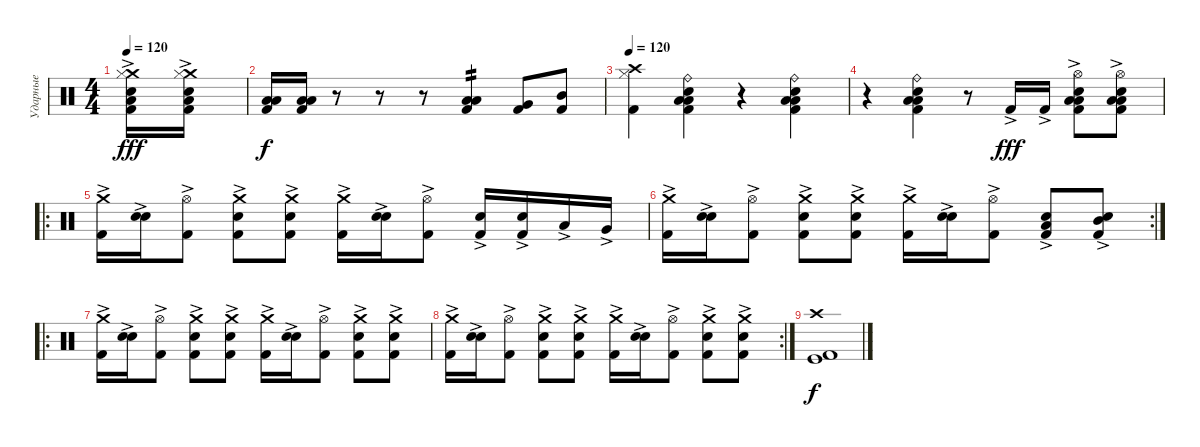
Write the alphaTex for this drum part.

\track ("Ударные" "Ударные") {instrument percussion}
\staff {score}
\articulation defaults
\ts (4 4)
\tempo 120
\clef neutral
\ks c
("Crash medium (hit)" "Low Tom (hit)" "Snare (hit) 2" "Hi-Hat (closed)" "Kick (hit) 2"{ac}).16{dy fff} ("Crash medium (hit)" "Low Tom (hit)" "Snare (hit) 2" "Hi-Hat (closed)" "Kick (hit) 2"{ac}).16 |
("Low Floor Tom (hit)" "Low Tom (hit)" "Kick (hit) 2").16{dy f} ("Low Floor Tom (hit)" "Low Tom (hit)" "Kick (hit) 2").16 r.8 r.8 r.8 ("Low Floor Tom (hit)" "Low Tom (hit)" "Kick (hit) 2").4{tp 2} ("Very Low Tom (hit)" "Kick (hit) 2").8 ("Mid Tom (hit)" "Kick (hit) 2").8 |
\tempo 120
("Crash high (hit)" "Hi-Hat (closed)" "Kick (hit) 2").4 ("Ride (bell)" "Low Floor Tom (hit)" "Low Tom (hit)" "Snare (hit) 2" "Kick (hit) 2").4 r.4 ("Ride (bell)" "Low Floor Tom (hit)" "Low Tom (hit)" "Snare (hit) 2" "Kick (hit) 2").4 |
r.4 ("Ride (bell)" "Low Floor Tom (hit)" "Low Tom (hit)" "Snare (hit) 2" "Kick (hit) 2").4 r.8 "Kick (hit) 2"{ac}.16{dy fff} "Kick (hit) 2"{ac}.16 ("Hi-Hat (open)" "Low Floor Tom (hit)" "Low Tom (hit)" "Snare (hit) 2" "Kick (hit) 2"{ac}).8 ("Hi-Hat (open)" "Low Floor Tom (hit)" "Low Tom (hit)" "Snare (hit) 2" "Kick (hit) 2"{ac}).8 |
\ro
("Crash medium (hit)"{ac} "Kick (hit) 2"{ac}).16 ("Snare (hit) 2" "Electric Snare (hit)"{ac}).16 ("Hi-Hat (open)" "Kick (hit) 2"{ac}).8 ("Crash medium (hit)"{ac} "Electric Snare (hit)"{ac} "Kick (hit) 2"{ac}).8 ("Crash medium (hit)"{ac} "Electric Snare (hit)"{ac} "Kick (hit) 2"{ac}).8 ("Crash medium (hit)"{ac} "Kick (hit) 2"{ac}).16 ("Snare (hit) 2" "Electric Snare (hit)"{ac}).16 ("Hi-Hat (open)" "Kick (hit) 2"{ac}).8 ("Electric Snare (hit)"{ac} "Kick (hit) 2"{ac}).16 ("Electric Snare (hit)"{ac} "Kick (hit) 2"{ac}).16 "Low Tom (hit)"{ac}.16 "Very Low Tom (hit)"{ac}.16 |
\rc 2
("Crash medium (hit)"{ac} "Kick (hit) 2"{ac}).16 ("Snare (hit) 2" "Electric Snare (hit)"{ac}).16 ("Hi-Hat (open)" "Kick (hit) 2"{ac}).8 ("Crash medium (hit)"{ac} "Electric Snare (hit)"{ac} "Kick (hit) 2"{ac}).8 ("Crash medium (hit)"{ac} "Electric Snare (hit)"{ac} "Kick (hit) 2"{ac}).8 ("Crash medium (hit)"{ac} "Kick (hit) 2"{ac}).16 ("Snare (hit) 2" "Electric Snare (hit)"{ac}).16 ("Hi-Hat (open)" "Kick (hit) 2"{ac}).8 ("Low Tom (hit)"{ac} "Electric Snare (hit)"{ac} "Kick (hit) 2"{ac}).8 ("Mid Tom (hit)"{ac} "Electric Snare (hit)"{ac} "Kick (hit) 2"{ac}).8 |
\ro
("Crash medium (hit)"{ac} "Kick (hit) 2"{ac}).16 ("Snare (hit) 2" "Electric Snare (hit)"{ac}).16 ("Hi-Hat (open)" "Kick (hit) 2"{ac}).8 ("Crash medium (hit)"{ac} "Electric Snare (hit)"{ac} "Kick (hit) 2"{ac}).8 ("Crash medium (hit)"{ac} "Electric Snare (hit)"{ac} "Kick (hit) 2"{ac}).8 ("Crash medium (hit)"{ac} "Kick (hit) 2"{ac}).16 ("Snare (hit) 2" "Electric Snare (hit)"{ac}).16 ("Hi-Hat (open)" "Kick (hit) 2"{ac}).8 ("Crash medium (hit)"{ac} "Electric Snare (hit)"{ac} "Kick (hit) 2"{ac}).8 ("Crash medium (hit)"{ac} "Electric Snare (hit)"{ac} "Kick (hit) 2"{ac}).8 |
\rc 2
("Crash medium (hit)"{ac} "Kick (hit) 2"{ac}).16 ("Snare (hit) 2" "Electric Snare (hit)"{ac}).16 ("Hi-Hat (open)" "Kick (hit) 2"{ac}).8 ("Crash medium (hit)"{ac} "Electric Snare (hit)"{ac} "Kick (hit) 2"{ac}).8 ("Crash medium (hit)"{ac} "Electric Snare (hit)"{ac} "Kick (hit) 2"{ac}).8 ("Crash medium (hit)"{ac} "Kick (hit) 2"{ac}).16 ("Snare (hit) 2" "Electric Snare (hit)"{ac}).16 ("Hi-Hat (open)" "Kick (hit) 2"{ac}).8 ("Crash medium (hit)"{ac} "Electric Snare (hit)"{ac} "Kick (hit) 2"{ac}).8 ("Crash medium (hit)"{ac} "Electric Snare (hit)"{ac} "Kick (hit) 2"{ac}).8 |
("Crash high (hit)" "Kick (hit)" "Kick (hit) 2").1{dy f}
